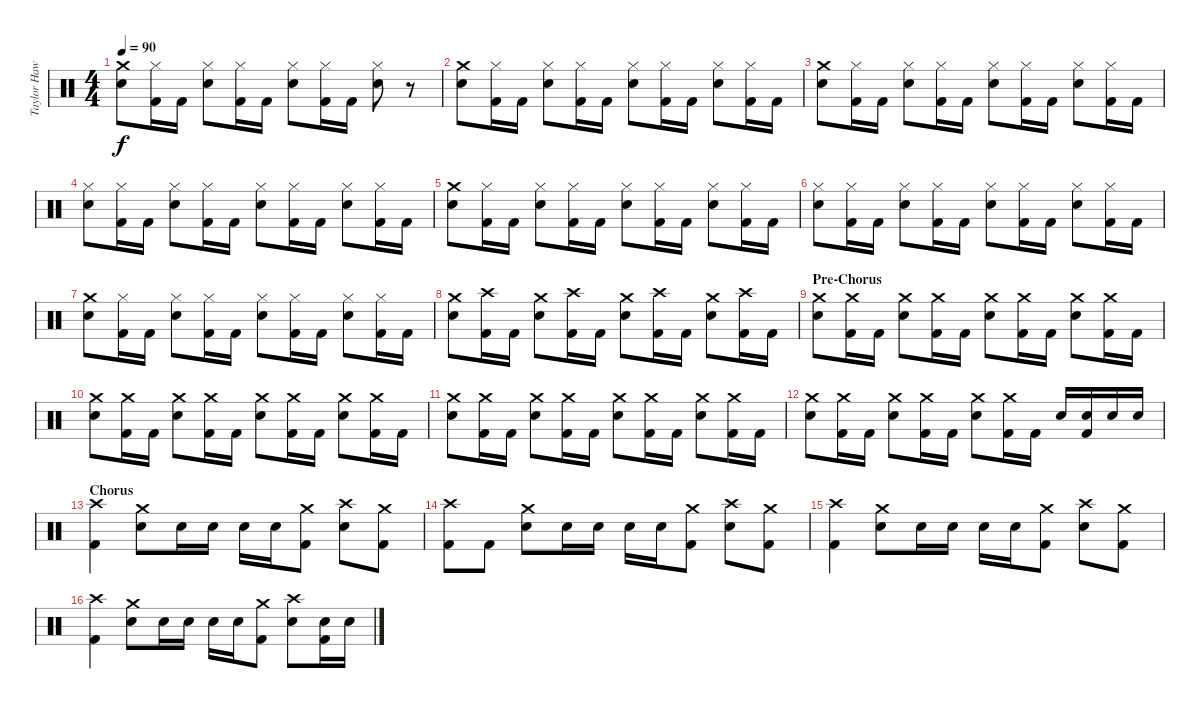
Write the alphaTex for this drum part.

\track ("Taylor Hawkins" "Taylor Haw") {instrument percussion}
\staff {score}
\articulation defaults
\ts (4 4)
\tempo 90
\clef neutral
\ks c
("Crash medium (hit)" "Electric Snare (hit)").8{dy f} ("Hi-Hat (closed)" "Kick (hit) 2").16 "Kick (hit) 2".16 ("Hi-Hat (closed)" "Electric Snare (hit)").8 ("Hi-Hat (closed)" "Kick (hit) 2").16 "Kick (hit) 2".16 ("Hi-Hat (closed)" "Electric Snare (hit)").8 ("Hi-Hat (closed)" "Kick (hit) 2").16 "Kick (hit) 2".16 ("Hi-Hat (closed)" "Electric Snare (hit)").8 r.8 |
("Crash medium (hit)" "Electric Snare (hit)").8 ("Hi-Hat (closed)" "Kick (hit) 2").16 "Kick (hit) 2".16 ("Hi-Hat (closed)" "Electric Snare (hit)").8 ("Hi-Hat (closed)" "Kick (hit) 2").16 "Kick (hit) 2".16 ("Hi-Hat (closed)" "Electric Snare (hit)").8 ("Hi-Hat (closed)" "Kick (hit) 2").16 "Kick (hit) 2".16 ("Hi-Hat (closed)" "Electric Snare (hit)").8 ("Hi-Hat (closed)" "Kick (hit) 2").16 "Kick (hit) 2".16 |
("Crash medium (hit)" "Electric Snare (hit)").8 ("Hi-Hat (closed)" "Kick (hit) 2").16 "Kick (hit) 2".16 ("Hi-Hat (closed)" "Electric Snare (hit)").8 ("Hi-Hat (closed)" "Kick (hit) 2").16 "Kick (hit) 2".16 ("Hi-Hat (closed)" "Electric Snare (hit)").8 ("Hi-Hat (closed)" "Kick (hit) 2").16 "Kick (hit) 2".16 ("Hi-Hat (closed)" "Electric Snare (hit)").8 ("Hi-Hat (closed)" "Kick (hit) 2").16 "Kick (hit) 2".16 |
("Hi-Hat (closed)" "Electric Snare (hit)").8 ("Hi-Hat (closed)" "Kick (hit) 2").16 "Kick (hit) 2".16 ("Hi-Hat (closed)" "Electric Snare (hit)").8 ("Hi-Hat (closed)" "Kick (hit) 2").16 "Kick (hit) 2".16 ("Hi-Hat (closed)" "Electric Snare (hit)").8 ("Hi-Hat (closed)" "Kick (hit) 2").16 "Kick (hit) 2".16 ("Hi-Hat (closed)" "Electric Snare (hit)").8 ("Hi-Hat (closed)" "Kick (hit) 2").16 "Kick (hit) 2".16 |
("Crash medium (hit)" "Electric Snare (hit)").8 ("Hi-Hat (closed)" "Kick (hit) 2").16 "Kick (hit) 2".16 ("Hi-Hat (closed)" "Electric Snare (hit)").8 ("Hi-Hat (closed)" "Kick (hit) 2").16 "Kick (hit) 2".16 ("Hi-Hat (closed)" "Electric Snare (hit)").8 ("Hi-Hat (closed)" "Kick (hit) 2").16 "Kick (hit) 2".16 ("Hi-Hat (closed)" "Electric Snare (hit)").8 ("Hi-Hat (closed)" "Kick (hit) 2").16 "Kick (hit) 2".16 |
("Hi-Hat (closed)" "Electric Snare (hit)").8 ("Hi-Hat (closed)" "Kick (hit) 2").16 "Kick (hit) 2".16 ("Hi-Hat (closed)" "Electric Snare (hit)").8 ("Hi-Hat (closed)" "Kick (hit) 2").16 "Kick (hit) 2".16 ("Hi-Hat (closed)" "Electric Snare (hit)").8 ("Hi-Hat (closed)" "Kick (hit) 2").16 "Kick (hit) 2".16 ("Hi-Hat (closed)" "Electric Snare (hit)").8 ("Hi-Hat (closed)" "Kick (hit) 2").16 "Kick (hit) 2".16 |
("Crash medium (hit)" "Electric Snare (hit)").8 ("Hi-Hat (closed)" "Kick (hit) 2").16 "Kick (hit) 2".16 ("Hi-Hat (closed)" "Electric Snare (hit)").8 ("Hi-Hat (closed)" "Kick (hit) 2").16 "Kick (hit) 2".16 ("Hi-Hat (closed)" "Electric Snare (hit)").8 ("Hi-Hat (closed)" "Kick (hit) 2").16 "Kick (hit) 2".16 ("Hi-Hat (closed)" "Electric Snare (hit)").8 ("Hi-Hat (closed)" "Kick (hit) 2").16 "Kick (hit) 2".16 |
("Crash medium (hit)" "Electric Snare (hit)").8 ("Crash high (hit)" "Kick (hit) 2").16 "Kick (hit) 2".16 ("Crash medium (hit)" "Electric Snare (hit)").8 ("Crash high (hit)" "Kick (hit) 2").16 "Kick (hit) 2".16 ("Crash medium (hit)" "Electric Snare (hit)").8 ("Crash high (hit)" "Kick (hit) 2").16 "Kick (hit) 2".16 ("Crash medium (hit)" "Electric Snare (hit)").8 ("Crash high (hit)" "Kick (hit) 2").16 "Kick (hit) 2".16 |
\section ("" "Pre-Chorus")
("Crash medium (hit)" "Electric Snare (hit)").8 ("Crash medium (hit)" "Kick (hit) 2").16 "Kick (hit) 2".16 ("Crash medium (hit)" "Electric Snare (hit)").8 ("Crash medium (hit)" "Kick (hit) 2").16 "Kick (hit) 2".16 ("Crash medium (hit)" "Electric Snare (hit)").8 ("Crash medium (hit)" "Kick (hit) 2").16 "Kick (hit) 2".16 ("Crash medium (hit)" "Electric Snare (hit)").8 ("Crash medium (hit)" "Kick (hit) 2").16 "Kick (hit) 2".16 |
("Crash medium (hit)" "Electric Snare (hit)").8 ("Crash medium (hit)" "Kick (hit) 2").16 "Kick (hit) 2".16 ("Crash medium (hit)" "Electric Snare (hit)").8 ("Crash medium (hit)" "Kick (hit) 2").16 "Kick (hit) 2".16 ("Crash medium (hit)" "Electric Snare (hit)").8 ("Crash medium (hit)" "Kick (hit) 2").16 "Kick (hit) 2".16 ("Crash medium (hit)" "Electric Snare (hit)").8 ("Crash medium (hit)" "Kick (hit) 2").16 "Kick (hit) 2".16 |
("Crash medium (hit)" "Electric Snare (hit)").8 ("Crash medium (hit)" "Kick (hit) 2").16 "Kick (hit) 2".16 ("Crash medium (hit)" "Electric Snare (hit)").8 ("Crash medium (hit)" "Kick (hit) 2").16 "Kick (hit) 2".16 ("Crash medium (hit)" "Electric Snare (hit)").8 ("Crash medium (hit)" "Kick (hit) 2").16 "Kick (hit) 2".16 ("Crash medium (hit)" "Electric Snare (hit)").8 ("Crash medium (hit)" "Kick (hit) 2").16 "Kick (hit) 2".16 |
("Crash medium (hit)" "Electric Snare (hit)").8 ("Crash medium (hit)" "Kick (hit) 2").16 "Kick (hit) 2".16 ("Crash medium (hit)" "Electric Snare (hit)").8 ("Crash medium (hit)" "Kick (hit) 2").16 "Kick (hit) 2".16 ("Crash medium (hit)" "Electric Snare (hit)").8 ("Crash medium (hit)" "Kick (hit) 2").16 "Kick (hit) 2".16 "Electric Snare (hit)".16 ("Electric Snare (hit)" "Kick (hit) 2").16 "Electric Snare (hit)".16 "Electric Snare (hit)".16 |
\section ("" "Chorus")
("Crash high (hit)" "Kick (hit) 2").4 ("Crash medium (hit)" "Electric Snare (hit)").8 "Electric Snare (hit)".16 "Electric Snare (hit)".16 "Electric Snare (hit)".16 "Electric Snare (hit)".16 ("Crash medium (hit)" "Kick (hit) 2").8 ("Crash high (hit)" "Electric Snare (hit)").8 ("Crash medium (hit)" "Kick (hit) 2").8 |
("Crash high (hit)" "Kick (hit) 2").8 "Kick (hit) 2".8 ("Crash medium (hit)" "Electric Snare (hit)").8 "Electric Snare (hit)".16 "Electric Snare (hit)".16 "Electric Snare (hit)".16 "Electric Snare (hit)".16 ("Crash medium (hit)" "Kick (hit) 2").8 ("Crash high (hit)" "Electric Snare (hit)").8 ("Crash medium (hit)" "Kick (hit) 2").8 |
("Crash high (hit)" "Kick (hit) 2").4 ("Crash medium (hit)" "Electric Snare (hit)").8 "Electric Snare (hit)".16 "Electric Snare (hit)".16 "Electric Snare (hit)".16 "Electric Snare (hit)".16 ("Crash medium (hit)" "Kick (hit) 2").8 ("Crash high (hit)" "Electric Snare (hit)").8 ("Crash medium (hit)" "Kick (hit) 2").8 |
("Crash high (hit)" "Kick (hit) 2").4 ("Crash medium (hit)" "Electric Snare (hit)").8 "Electric Snare (hit)".16 "Electric Snare (hit)".16 "Electric Snare (hit)".16 "Electric Snare (hit)".16 ("Crash medium (hit)" "Kick (hit) 2").8 ("Crash high (hit)" "Electric Snare (hit)").8 ("Electric Snare (hit)" "Kick (hit) 2").16 "Electric Snare (hit)".16
